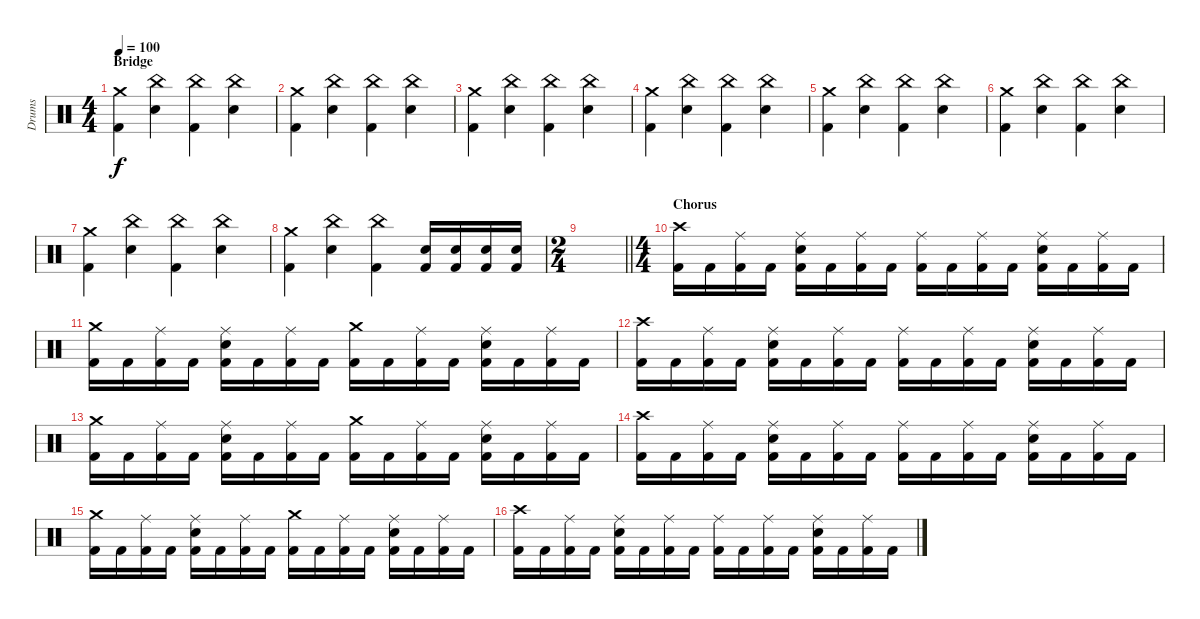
\track ("Drums" "Drums") {instrument percussion}
\staff {score}
\articulation defaults
\ts (4 4)
\section ("" "Bridge")
\tempo 100
\clef neutral
\ks c
("Crash medium (hit)" "Kick (hit) 2").4{dy f} ("China (hit)" "Snare (hit) 2").4 ("China (hit)" "Kick (hit) 2").4 ("China (hit)" "Snare (hit) 2").4 |
("Crash medium (hit)" "Kick (hit) 2").4 ("China (hit)" "Snare (hit) 2").4 ("China (hit)" "Kick (hit) 2").4 ("China (hit)" "Snare (hit) 2").4 |
("Crash medium (hit)" "Kick (hit) 2").4 ("China (hit)" "Snare (hit) 2").4 ("China (hit)" "Kick (hit) 2").4 ("China (hit)" "Snare (hit) 2").4 |
("Crash medium (hit)" "Kick (hit) 2").4 ("China (hit)" "Snare (hit) 2").4 ("China (hit)" "Kick (hit) 2").4 ("China (hit)" "Snare (hit) 2").4 |
("Crash medium (hit)" "Kick (hit) 2").4 ("China (hit)" "Snare (hit) 2").4 ("China (hit)" "Kick (hit) 2").4 ("China (hit)" "Snare (hit) 2").4 |
("Crash medium (hit)" "Kick (hit) 2").4 ("China (hit)" "Snare (hit) 2").4 ("China (hit)" "Kick (hit) 2").4 ("China (hit)" "Snare (hit) 2").4 |
("Crash medium (hit)" "Kick (hit) 2").4 ("China (hit)" "Snare (hit) 2").4 ("China (hit)" "Kick (hit) 2").4 ("China (hit)" "Snare (hit) 2").4 |
("Crash medium (hit)" "Kick (hit) 2").4 ("China (hit)" "Snare (hit) 2").4 ("China (hit)" "Kick (hit) 2").4 ("Snare (hit) 2" "Kick (hit) 2").16 ("Snare (hit) 2" "Kick (hit) 2").16 ("Snare (hit) 2" "Kick (hit) 2").16 ("Snare (hit) 2" "Kick (hit) 2").16 |
\ts (2 4)
\barLineRight lightlight
|
\ts (4 4)
\section ("" "Chorus")
("Crash high (hit)" "Kick (hit) 2").16 "Kick (hit) 2".16 ("Ride (middle)" "Kick (hit) 2").16 "Kick (hit) 2".16 ("Ride (middle)" "Snare (hit) 2" "Kick (hit) 2").16 "Kick (hit) 2".16 ("Ride (middle)" "Kick (hit) 2").16 "Kick (hit) 2".16 ("Ride (middle)" "Kick (hit) 2").16 "Kick (hit) 2".16 ("Ride (middle)" "Kick (hit) 2").16 "Kick (hit) 2".16 ("Ride (middle)" "Snare (hit) 2" "Kick (hit) 2").16 "Kick (hit) 2".16 ("Ride (middle)" "Kick (hit) 2").16 "Kick (hit) 2".16 |
("Crash medium (hit)" "Kick (hit) 2").16 "Kick (hit) 2".16 ("Ride (middle)" "Kick (hit) 2").16 "Kick (hit) 2".16 ("Ride (middle)" "Snare (hit) 2" "Kick (hit) 2").16 "Kick (hit) 2".16 ("Ride (middle)" "Kick (hit) 2").16 "Kick (hit) 2".16 ("Crash medium (hit)" "Kick (hit) 2").16 "Kick (hit) 2".16 ("Ride (middle)" "Kick (hit) 2").16 "Kick (hit) 2".16 ("Ride (middle)" "Snare (hit) 2" "Kick (hit) 2").16 "Kick (hit) 2".16 ("Ride (middle)" "Kick (hit) 2").16 "Kick (hit) 2".16 |
("Crash high (hit)" "Kick (hit) 2").16 "Kick (hit) 2".16 ("Ride (middle)" "Kick (hit) 2").16 "Kick (hit) 2".16 ("Ride (middle)" "Snare (hit) 2" "Kick (hit) 2").16 "Kick (hit) 2".16 ("Ride (middle)" "Kick (hit) 2").16 "Kick (hit) 2".16 ("Ride (middle)" "Kick (hit) 2").16 "Kick (hit) 2".16 ("Ride (middle)" "Kick (hit) 2").16 "Kick (hit) 2".16 ("Ride (middle)" "Snare (hit) 2" "Kick (hit) 2").16 "Kick (hit) 2".16 ("Ride (middle)" "Kick (hit) 2").16 "Kick (hit) 2".16 |
("Crash medium (hit)" "Kick (hit) 2").16 "Kick (hit) 2".16 ("Ride (middle)" "Kick (hit) 2").16 "Kick (hit) 2".16 ("Ride (middle)" "Snare (hit) 2" "Kick (hit) 2").16 "Kick (hit) 2".16 ("Ride (middle)" "Kick (hit) 2").16 "Kick (hit) 2".16 ("Crash medium (hit)" "Kick (hit) 2").16 "Kick (hit) 2".16 ("Ride (middle)" "Kick (hit) 2").16 "Kick (hit) 2".16 ("Ride (middle)" "Snare (hit) 2" "Kick (hit) 2").16 "Kick (hit) 2".16 ("Ride (middle)" "Kick (hit) 2").16 "Kick (hit) 2".16 |
("Crash high (hit)" "Kick (hit) 2").16 "Kick (hit) 2".16 ("Ride (middle)" "Kick (hit) 2").16 "Kick (hit) 2".16 ("Ride (middle)" "Snare (hit) 2" "Kick (hit) 2").16 "Kick (hit) 2".16 ("Ride (middle)" "Kick (hit) 2").16 "Kick (hit) 2".16 ("Ride (middle)" "Kick (hit) 2").16 "Kick (hit) 2".16 ("Ride (middle)" "Kick (hit) 2").16 "Kick (hit) 2".16 ("Ride (middle)" "Snare (hit) 2" "Kick (hit) 2").16 "Kick (hit) 2".16 ("Ride (middle)" "Kick (hit) 2").16 "Kick (hit) 2".16 |
("Crash medium (hit)" "Kick (hit) 2").16 "Kick (hit) 2".16 ("Ride (middle)" "Kick (hit) 2").16 "Kick (hit) 2".16 ("Ride (middle)" "Snare (hit) 2" "Kick (hit) 2").16 "Kick (hit) 2".16 ("Ride (middle)" "Kick (hit) 2").16 "Kick (hit) 2".16 ("Crash medium (hit)" "Kick (hit) 2").16 "Kick (hit) 2".16 ("Ride (middle)" "Kick (hit) 2").16 "Kick (hit) 2".16 ("Ride (middle)" "Snare (hit) 2" "Kick (hit) 2").16 "Kick (hit) 2".16 ("Ride (middle)" "Kick (hit) 2").16 "Kick (hit) 2".16 |
("Crash high (hit)" "Kick (hit) 2").16 "Kick (hit) 2".16 ("Ride (middle)" "Kick (hit) 2").16 "Kick (hit) 2".16 ("Ride (middle)" "Snare (hit) 2" "Kick (hit) 2").16 "Kick (hit) 2".16 ("Ride (middle)" "Kick (hit) 2").16 "Kick (hit) 2".16 ("Ride (middle)" "Kick (hit) 2").16 "Kick (hit) 2".16 ("Ride (middle)" "Kick (hit) 2").16 "Kick (hit) 2".16 ("Ride (middle)" "Snare (hit) 2" "Kick (hit) 2").16 "Kick (hit) 2".16 ("Ride (middle)" "Kick (hit) 2").16 "Kick (hit) 2".16
